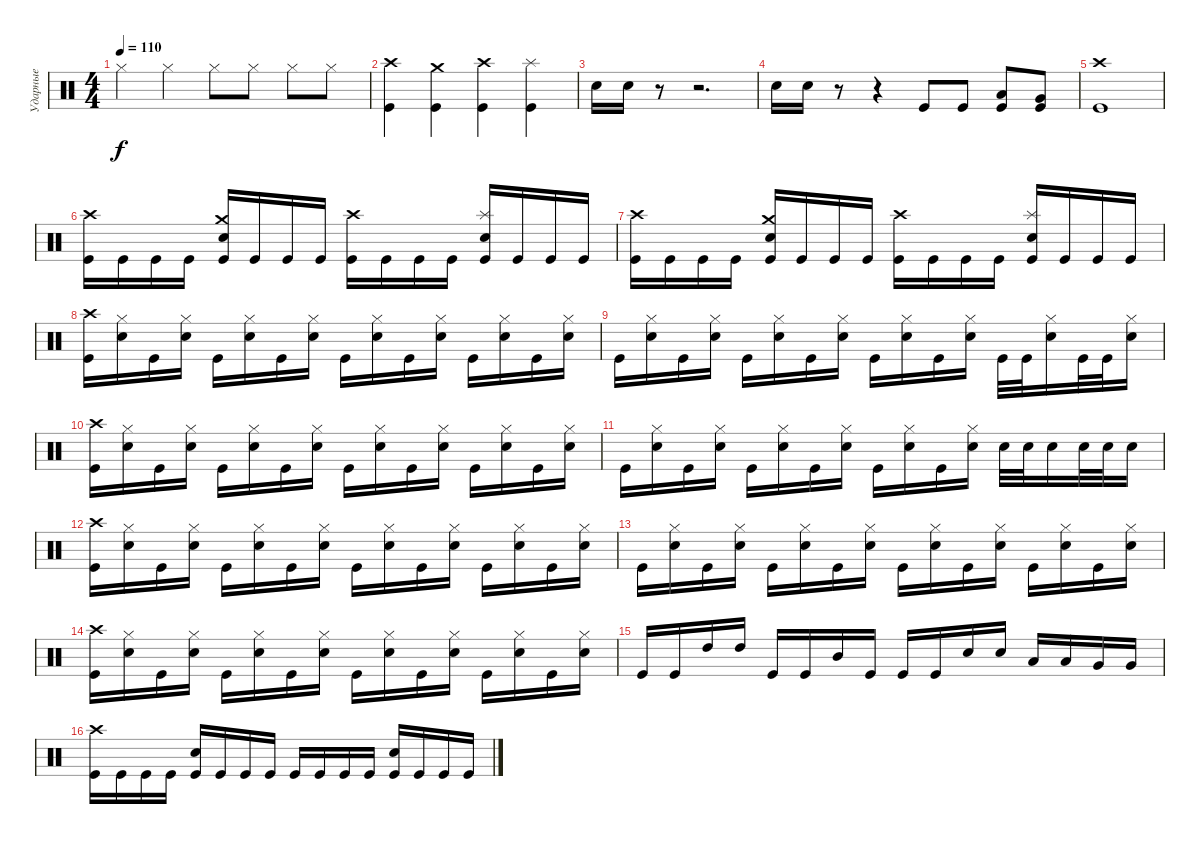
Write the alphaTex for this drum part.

\track ("Ударные" "Ударные") {instrument percussion}
\staff {score}
\articulation defaults
\ts (4 4)
\tempo 110
\clef neutral
\ks c "Hi-Hat (closed)".4{dy f} "Hi-Hat (closed)".4 "Hi-Hat (closed)".8 "Hi-Hat (closed)".8 "Hi-Hat (closed)".8 "Hi-Hat (closed)".8
|
("Crash high (hit)" "Kick (hit)").4 ("Crash medium (hit)" "Kick (hit)").4 ("Crash high (hit)" "Kick (hit)").4 ("Splash (hit)" "Kick (hit)").4 |
"Electric Snare (hit)".16 "Electric Snare (hit)".16 r.8 r.2{d} |
"Electric Snare (hit)".16 "Electric Snare (hit)".16 r.8 r.4 "Kick (hit)".8 "Kick (hit)".8 ("Low Tom (hit)" "Kick (hit)").8 ("Very Low Tom (hit)" "Kick (hit)").8 |
("Crash high (hit)" "Kick (hit)").1 |
("Crash high (hit)" "Kick (hit)").16 "Kick (hit)".16 "Kick (hit)".16 "Kick (hit)".16 ("Crash medium (hit)" "Electric Snare (hit)" "Kick (hit)").16 "Kick (hit)".16 "Kick (hit)".16 "Kick (hit)".16 ("Crash high (hit)" "Kick (hit)").16 "Kick (hit)".16 "Kick (hit)".16 "Kick (hit)".16 ("Splash (hit)" "Electric Snare (hit)" "Kick (hit)").16 "Kick (hit)".16 "Kick (hit)".16 "Kick (hit)".16 |
("Crash high (hit)" "Kick (hit)").16 "Kick (hit)".16 "Kick (hit)".16 "Kick (hit)".16 ("Crash medium (hit)" "Electric Snare (hit)" "Kick (hit)").16 "Kick (hit)".16 "Kick (hit)".16 "Kick (hit)".16 ("Crash high (hit)" "Kick (hit)").16 "Kick (hit)".16 "Kick (hit)".16 "Kick (hit)".16 ("Splash (hit)" "Electric Snare (hit)" "Kick (hit)").16 "Kick (hit)".16 "Kick (hit)".16 "Kick (hit)".16 |
("Crash high (hit)" "Kick (hit)").16 ("Hi-Hat (closed)" "Electric Snare (hit)").16 "Kick (hit)".16 ("Hi-Hat (closed)" "Electric Snare (hit)").16 "Kick (hit)".16 ("Hi-Hat (closed)" "Electric Snare (hit)").16 "Kick (hit)".16 ("Hi-Hat (closed)" "Electric Snare (hit)").16 "Kick (hit)".16 ("Hi-Hat (closed)" "Electric Snare (hit)").16 "Kick (hit)".16 ("Hi-Hat (closed)" "Electric Snare (hit)").16 "Kick (hit)".16 ("Hi-Hat (closed)" "Electric Snare (hit)").16 "Kick (hit)".16 ("Hi-Hat (closed)" "Electric Snare (hit)").16 |
"Kick (hit)".16 ("Hi-Hat (closed)" "Electric Snare (hit)").16 "Kick (hit)".16 ("Hi-Hat (closed)" "Electric Snare (hit)").16 "Kick (hit)".16 ("Hi-Hat (closed)" "Electric Snare (hit)").16 "Kick (hit)".16 ("Hi-Hat (closed)" "Electric Snare (hit)").16 "Kick (hit)".16 ("Hi-Hat (closed)" "Electric Snare (hit)").16 "Kick (hit)".16 ("Hi-Hat (closed)" "Electric Snare (hit)").16 "Kick (hit)".32 "Kick (hit)".32 ("Hi-Hat (closed)" "Electric Snare (hit)").16 "Kick (hit)".32 "Kick (hit)".32 ("Hi-Hat (closed)" "Electric Snare (hit)").16 |
("Crash high (hit)" "Kick (hit)").16 ("Hi-Hat (closed)" "Electric Snare (hit)").16 "Kick (hit)".16 ("Hi-Hat (closed)" "Electric Snare (hit)").16 "Kick (hit)".16 ("Hi-Hat (closed)" "Electric Snare (hit)").16 "Kick (hit)".16 ("Hi-Hat (closed)" "Electric Snare (hit)").16 "Kick (hit)".16 ("Hi-Hat (closed)" "Electric Snare (hit)").16 "Kick (hit)".16 ("Hi-Hat (closed)" "Electric Snare (hit)").16 "Kick (hit)".16 ("Hi-Hat (closed)" "Electric Snare (hit)").16 "Kick (hit)".16 ("Hi-Hat (closed)" "Electric Snare (hit)").16 |
"Kick (hit)".16 ("Hi-Hat (closed)" "Electric Snare (hit)").16 "Kick (hit)".16 ("Hi-Hat (closed)" "Electric Snare (hit)").16 "Kick (hit)".16 ("Hi-Hat (closed)" "Electric Snare (hit)").16 "Kick (hit)".16 ("Hi-Hat (closed)" "Electric Snare (hit)").16 "Kick (hit)".16 ("Hi-Hat (closed)" "Electric Snare (hit)").16 "Kick (hit)".16 ("Hi-Hat (closed)" "Electric Snare (hit)").16 "Electric Snare (hit)".32 "Electric Snare (hit)".32 "Electric Snare (hit)".16 "Electric Snare (hit)".32 "Electric Snare (hit)".32 "Electric Snare (hit)".16 |
("Crash high (hit)" "Kick (hit)").16 ("Hi-Hat (closed)" "Electric Snare (hit)").16 "Kick (hit)".16 ("Hi-Hat (closed)" "Electric Snare (hit)").16 "Kick (hit)".16 ("Hi-Hat (closed)" "Electric Snare (hit)").16 "Kick (hit)".16 ("Hi-Hat (closed)" "Electric Snare (hit)").16 "Kick (hit)".16 ("Hi-Hat (closed)" "Electric Snare (hit)").16 "Kick (hit)".16 ("Hi-Hat (closed)" "Electric Snare (hit)").16 "Kick (hit)".16 ("Hi-Hat (closed)" "Electric Snare (hit)").16 "Kick (hit)".16 ("Hi-Hat (closed)" "Electric Snare (hit)").16 |
"Kick (hit)".16 ("Hi-Hat (closed)" "Electric Snare (hit)").16 "Kick (hit)".16 ("Hi-Hat (closed)" "Electric Snare (hit)").16 "Kick (hit)".16 ("Hi-Hat (closed)" "Electric Snare (hit)").16 "Kick (hit)".16 ("Hi-Hat (closed)" "Electric Snare (hit)").16 "Kick (hit)".16 ("Hi-Hat (closed)" "Electric Snare (hit)").16 "Kick (hit)".16 ("Hi-Hat (closed)" "Electric Snare (hit)").16 "Kick (hit)".16 ("Hi-Hat (closed)" "Electric Snare (hit)").16 "Kick (hit)".16 ("Hi-Hat (closed)" "Electric Snare (hit)").16 |
("Crash high (hit)" "Kick (hit)").16 ("Hi-Hat (closed)" "Electric Snare (hit)").16 "Kick (hit)".16 ("Hi-Hat (closed)" "Electric Snare (hit)").16 "Kick (hit)".16 ("Hi-Hat (closed)" "Electric Snare (hit)").16 "Kick (hit)".16 ("Hi-Hat (closed)" "Electric Snare (hit)").16 "Kick (hit)".16 ("Hi-Hat (closed)" "Electric Snare (hit)").16 "Kick (hit)".16 ("Hi-Hat (closed)" "Electric Snare (hit)").16 "Kick (hit)".16 ("Hi-Hat (closed)" "Electric Snare (hit)").16 "Kick (hit)".16 ("Hi-Hat (closed)" "Electric Snare (hit)").16 |
"Kick (hit)".16 "Kick (hit)".16 "High Tom (hit)".16 "High Tom (hit)".16 "Kick (hit)".16 "Kick (hit)".16 "Mid Tom (hit)".16 "Kick (hit)".16 "Kick (hit)".16 "Kick (hit)".16 "Electric Snare (hit)".16 "Electric Snare (hit)".16 "Low Tom (hit)".16 "Low Tom (hit)".16 "Very Low Tom (hit)".16 "Very Low Tom (hit)".16 |
("Crash high (hit)" "Kick (hit)").16 "Kick (hit)".16 "Kick (hit)".16 "Kick (hit)".16 ("Electric Snare (hit)" "Kick (hit)").16 "Kick (hit)".16 "Kick (hit)".16 "Kick (hit)".16 "Kick (hit)".16 "Kick (hit)".16 "Kick (hit)".16 "Kick (hit)".16 ("Electric Snare (hit)" "Kick (hit)").16 "Kick (hit)".16 "Kick (hit)".16 "Kick (hit)".16
